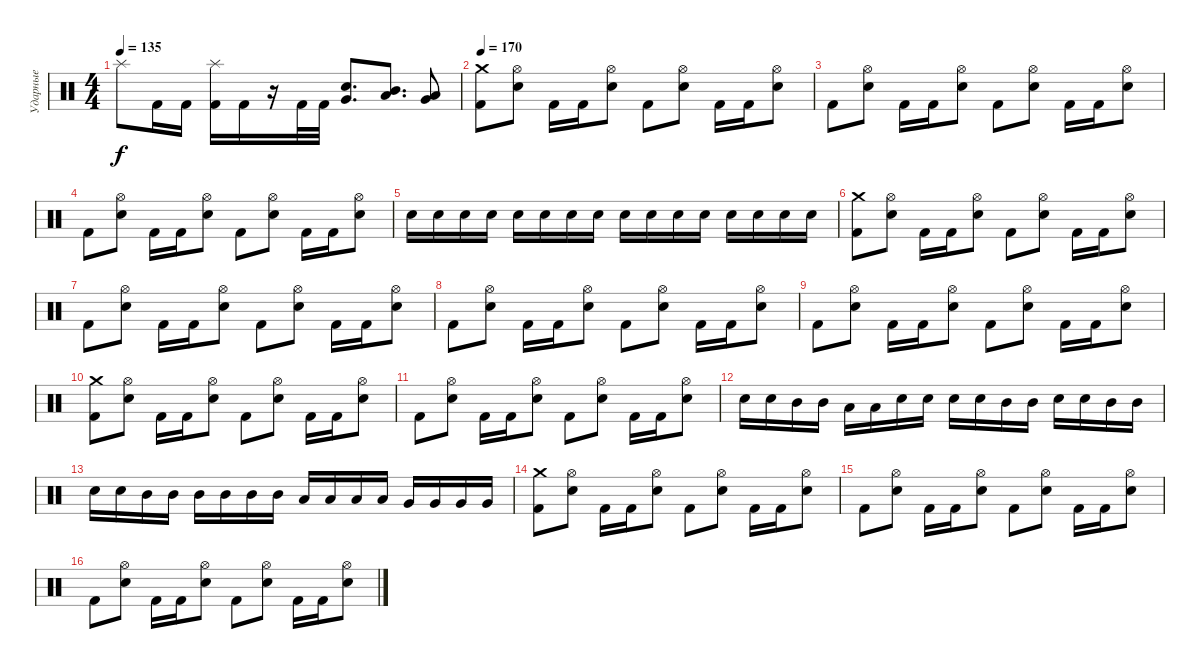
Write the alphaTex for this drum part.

\track ("Ударные" "Ударные") {instrument percussion}
\staff {score}
\articulation defaults
\ts (4 4)
\tempo 135
\clef neutral
\ks c "Splash (hit)".8{dy f} "Kick (hit) 2".16 "Kick (hit) 2".16
("Splash (hit)" "Kick (hit) 2").16 "Kick (hit) 2".16 r.16 "Kick (hit) 2".32 "Kick (hit) 2".32 ("Electric Snare (hit)" "Very Low Tom (hit)").8{d} ("Mid Tom (hit)" "Low Tom (hit)").8{d} ("Low Tom (hit)" "Very Low Tom (hit)").8 |
\tempo 170
("Crash medium (hit)" "Kick (hit) 2").8 ("Hi-Hat (open)" "Electric Snare (hit)").8 "Kick (hit) 2".16 "Kick (hit) 2".16 ("Hi-Hat (open)" "Electric Snare (hit)").8 "Kick (hit) 2".8 ("Hi-Hat (open)" "Electric Snare (hit)").8 "Kick (hit) 2".16 "Kick (hit) 2".16 ("Hi-Hat (open)" "Electric Snare (hit)").8 |
"Kick (hit) 2".8 ("Hi-Hat (open)" "Electric Snare (hit)").8 "Kick (hit) 2".16 "Kick (hit) 2".16 ("Hi-Hat (open)" "Electric Snare (hit)").8 "Kick (hit) 2".8 ("Hi-Hat (open)" "Electric Snare (hit)").8 "Kick (hit) 2".16 "Kick (hit) 2".16 ("Hi-Hat (open)" "Electric Snare (hit)").8 |
"Kick (hit) 2".8 ("Hi-Hat (open)" "Electric Snare (hit)").8 "Kick (hit) 2".16 "Kick (hit) 2".16 ("Hi-Hat (open)" "Electric Snare (hit)").8 "Kick (hit) 2".8 ("Hi-Hat (open)" "Electric Snare (hit)").8 "Kick (hit) 2".16 "Kick (hit) 2".16 ("Hi-Hat (open)" "Electric Snare (hit)").8 |
"Electric Snare (hit)".16 "Electric Snare (hit)".16 "Electric Snare (hit)".16 "Electric Snare (hit)".16 "Electric Snare (hit)".16 "Electric Snare (hit)".16 "Electric Snare (hit)".16 "Electric Snare (hit)".16 "Electric Snare (hit)".16 "Electric Snare (hit)".16 "Electric Snare (hit)".16 "Electric Snare (hit)".16 "Electric Snare (hit)".16 "Electric Snare (hit)".16 "Electric Snare (hit)".16 "Electric Snare (hit)".16 |
("Crash medium (hit)" "Kick (hit) 2").8 ("Hi-Hat (open)" "Electric Snare (hit)").8 "Kick (hit) 2".16 "Kick (hit) 2".16 ("Hi-Hat (open)" "Electric Snare (hit)").8 "Kick (hit) 2".8 ("Hi-Hat (open)" "Electric Snare (hit)").8 "Kick (hit) 2".16 "Kick (hit) 2".16 ("Hi-Hat (open)" "Electric Snare (hit)").8 |
"Kick (hit) 2".8 ("Hi-Hat (open)" "Electric Snare (hit)").8 "Kick (hit) 2".16 "Kick (hit) 2".16 ("Hi-Hat (open)" "Electric Snare (hit)").8 "Kick (hit) 2".8 ("Hi-Hat (open)" "Electric Snare (hit)").8 "Kick (hit) 2".16 "Kick (hit) 2".16 ("Hi-Hat (open)" "Electric Snare (hit)").8 |
"Kick (hit) 2".8 ("Hi-Hat (open)" "Electric Snare (hit)").8 "Kick (hit) 2".16 "Kick (hit) 2".16 ("Hi-Hat (open)" "Electric Snare (hit)").8 "Kick (hit) 2".8 ("Hi-Hat (open)" "Electric Snare (hit)").8 "Kick (hit) 2".16 "Kick (hit) 2".16 ("Hi-Hat (open)" "Electric Snare (hit)").8 |
"Kick (hit) 2".8 ("Hi-Hat (open)" "Electric Snare (hit)").8 "Kick (hit) 2".16 "Kick (hit) 2".16 ("Hi-Hat (open)" "Electric Snare (hit)").8 "Kick (hit) 2".8 ("Hi-Hat (open)" "Electric Snare (hit)").8 "Kick (hit) 2".16 "Kick (hit) 2".16 ("Hi-Hat (open)" "Electric Snare (hit)").8 |
("Crash medium (hit)" "Kick (hit) 2").8 ("Hi-Hat (open)" "Electric Snare (hit)").8 "Kick (hit) 2".16 "Kick (hit) 2".16 ("Hi-Hat (open)" "Electric Snare (hit)").8 "Kick (hit) 2".8 ("Hi-Hat (open)" "Electric Snare (hit)").8 "Kick (hit) 2".16 "Kick (hit) 2".16 ("Hi-Hat (open)" "Electric Snare (hit)").8 |
"Kick (hit) 2".8 ("Hi-Hat (open)" "Electric Snare (hit)").8 "Kick (hit) 2".16 "Kick (hit) 2".16 ("Hi-Hat (open)" "Electric Snare (hit)").8 "Kick (hit) 2".8 ("Hi-Hat (open)" "Electric Snare (hit)").8 "Kick (hit) 2".16 "Kick (hit) 2".16 ("Hi-Hat (open)" "Electric Snare (hit)").8 |
"Electric Snare (hit)".16 "Electric Snare (hit)".16 "Mid Tom (hit)".16 "Mid Tom (hit)".16 "Low Tom (hit)".16 "Low Tom (hit)".16 "Electric Snare (hit)".16 "Electric Snare (hit)".16 "Electric Snare (hit)".16 "Electric Snare (hit)".16 "Mid Tom (hit)".16 "Mid Tom (hit)".16 "Electric Snare (hit)".16 "Electric Snare (hit)".16 "Mid Tom (hit)".16 "Mid Tom (hit)".16 |
"Electric Snare (hit)".16 "Electric Snare (hit)".16 "Mid Tom (hit)".16 "Mid Tom (hit)".16 "Mid Tom (hit)".16 "Mid Tom (hit)".16 "Mid Tom (hit)".16 "Mid Tom (hit)".16 "Low Tom (hit)".16 "Low Tom (hit)".16 "Low Tom (hit)".16 "Low Tom (hit)".16 "Very Low Tom (hit)".16 "Very Low Tom (hit)".16 "Very Low Tom (hit)".16 "Very Low Tom (hit)".16 |
("Crash medium (hit)" "Kick (hit) 2").8 ("Hi-Hat (open)" "Electric Snare (hit)").8 "Kick (hit) 2".16 "Kick (hit) 2".16 ("Hi-Hat (open)" "Electric Snare (hit)").8 "Kick (hit) 2".8 ("Hi-Hat (open)" "Electric Snare (hit)").8 "Kick (hit) 2".16 "Kick (hit) 2".16 ("Hi-Hat (open)" "Electric Snare (hit)").8 |
"Kick (hit) 2".8 ("Hi-Hat (open)" "Electric Snare (hit)").8 "Kick (hit) 2".16 "Kick (hit) 2".16 ("Hi-Hat (open)" "Electric Snare (hit)").8 "Kick (hit) 2".8 ("Hi-Hat (open)" "Electric Snare (hit)").8 "Kick (hit) 2".16 "Kick (hit) 2".16 ("Hi-Hat (open)" "Electric Snare (hit)").8 |
"Kick (hit) 2".8 ("Hi-Hat (open)" "Electric Snare (hit)").8 "Kick (hit) 2".16 "Kick (hit) 2".16 ("Hi-Hat (open)" "Electric Snare (hit)").8 "Kick (hit) 2".8 ("Hi-Hat (open)" "Electric Snare (hit)").8 "Kick (hit) 2".16 "Kick (hit) 2".16 ("Hi-Hat (open)" "Electric Snare (hit)").8
